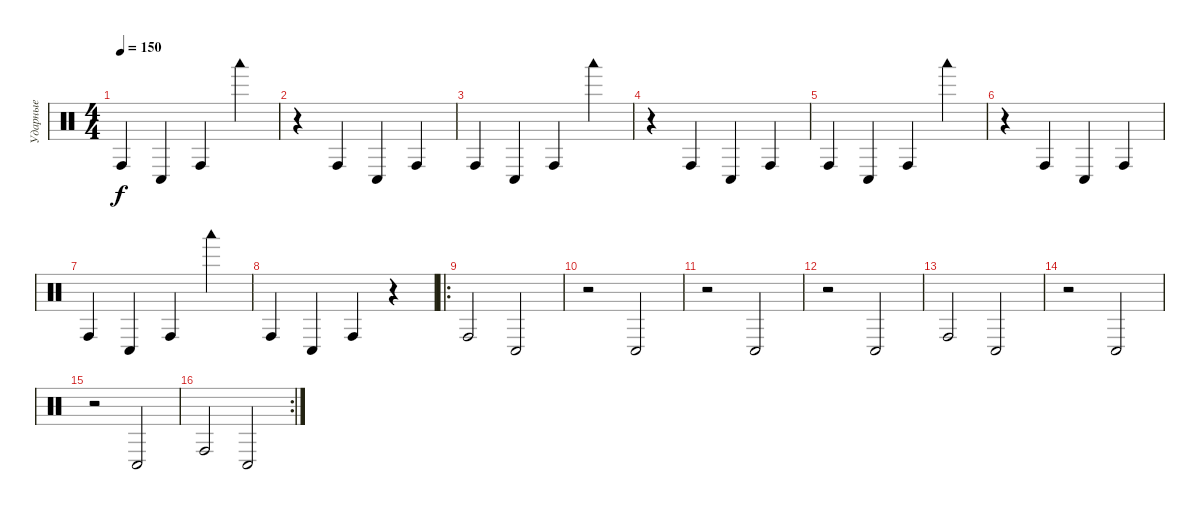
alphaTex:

\track ("Ударные" "Ударные") {instrument percussion}
\staff {score}
\articulation defaults
\ts (4 4)
\tempo 150
\clef neutral
\ks c "Conga high (hit)".4{dy f} "Conga low (hit)".4 "Conga high (hit)".4 "Woodblock low (hit)".4
|
r.4 "Conga high (hit)".4 "Conga low (hit)".4 "Conga high (hit)".4 |
"Conga high (hit)".4 "Conga low (hit)".4 "Conga high (hit)".4 "Woodblock low (hit)".4 |
r.4 "Conga high (hit)".4 "Conga low (hit)".4 "Conga high (hit)".4 |
"Conga high (hit)".4 "Conga low (hit)".4 "Conga high (hit)".4 "Woodblock low (hit)".4 |
r.4 "Conga high (hit)".4 "Conga low (hit)".4 "Conga high (hit)".4 |
"Conga high (hit)".4 "Conga low (hit)".4 "Conga high (hit)".4 "Woodblock low (hit)".4 |
"Conga high (hit)".4 "Conga low (hit)".4 "Conga high (hit)".4 r.4 |
\ro "Conga high (hit)".2 "Conga low (hit)".2
|
r.2 "Conga low (hit)".2 |
r.2 "Conga low (hit)".2 |
r.2 "Conga low (hit)".2 |
"Conga high (hit)".2 "Conga low (hit)".2 |
r.2 "Conga low (hit)".2 |
r.2 "Conga low (hit)".2 |
\rc 2 "Conga high (hit)".2 "Conga low (hit)".2
